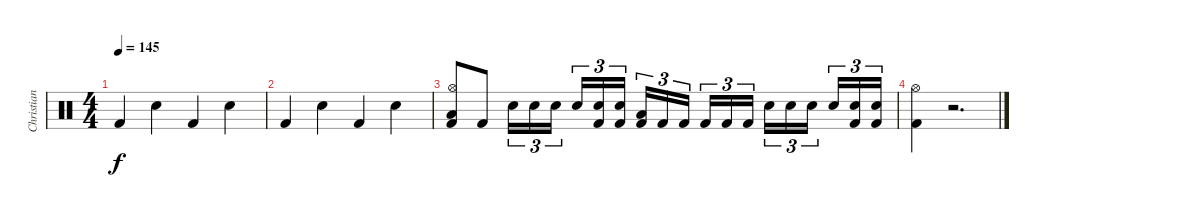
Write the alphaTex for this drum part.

\track ("Christian Paredes" "Christian ") {instrument percussion}
\staff {score}
\articulation defaults
\ts (4 4)
\tempo 145
\clef neutral
\ks c "Kick (hit) 2".4{dy f} "Snare (hit) 2".4 "Kick (hit) 2".4 "Snare (hit) 2".4
|
"Kick (hit) 2".4 "Snare (hit) 2".4 "Kick (hit) 2".4 "Snare (hit) 2".4 |
("Hi-Hat (open)" "Low Floor Tom (hit)" "Kick (hit) 2").8 "Kick (hit) 2".8 "Snare (hit) 2".16{tu (3 2)} "Snare (hit) 2".16{tu (3 2)} "Snare (hit) 2".16{tu (3 2) beam splitsecondary} "Snare (hit) 2".16{tu (3 2)} ("Snare (hit) 2" "Kick (hit) 2").16{tu (3 2)} ("Snare (hit) 2" "Kick (hit) 2").16{tu (3 2)} ("Low Floor Tom (hit)" "Kick (hit) 2").16{tu (3 2)} "Kick (hit) 2".16{tu (3 2)} "Kick (hit) 2".16{tu (3 2) beam splitsecondary} "Kick (hit) 2".16{tu (3 2)} "Kick (hit) 2".16{tu (3 2)} "Kick (hit) 2".16{tu (3 2)} "Snare (hit) 2".16{tu (3 2)} "Snare (hit) 2".16{tu (3 2)} "Snare (hit) 2".16{tu (3 2) beam splitsecondary} "Snare (hit) 2".16{tu (3 2)} ("Snare (hit) 2" "Kick (hit) 2").16{tu (3 2)} ("Snare (hit) 2" "Kick (hit) 2").16{tu (3 2)} |
("Hi-Hat (open)" "Kick (hit) 2").4 r.2{d}
